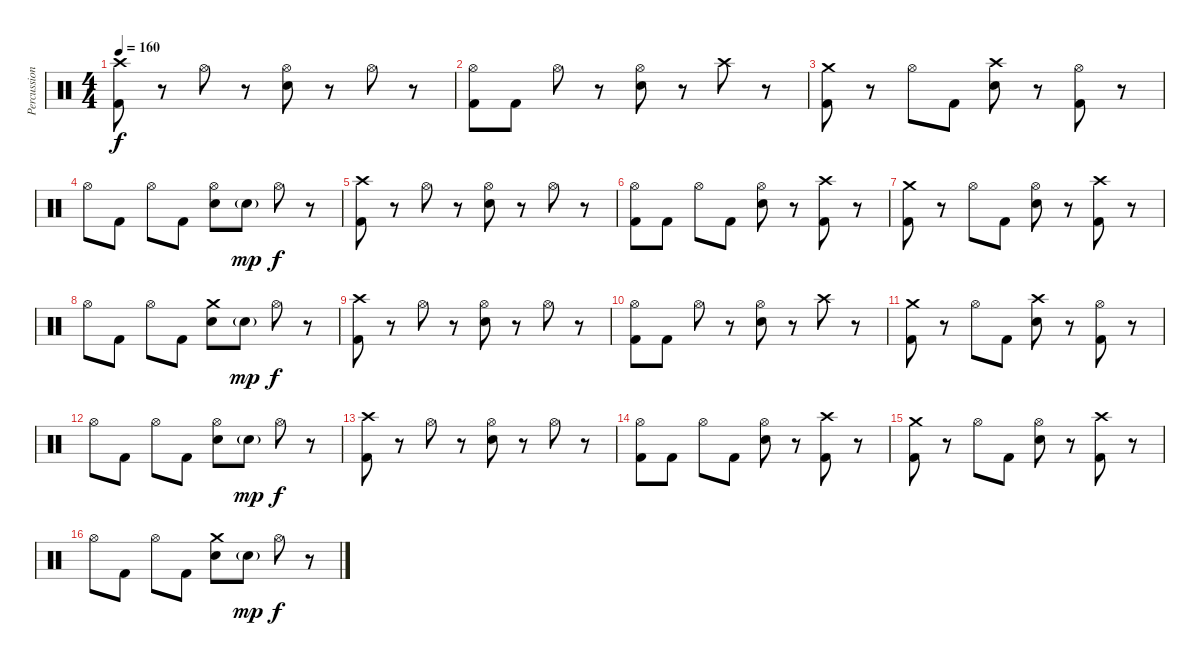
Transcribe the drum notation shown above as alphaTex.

\track ("Percussion" "Percussion") {instrument percussion}
\staff {score}
\articulation defaults
\ts (4 4)
\tempo 160
\clef neutral
\ks c
("Crash high (hit)" "Kick (hit) 2").8{dy f} r.8 "Hi-Hat (open)".8 r.8 ("Hi-Hat (open)" "Electric Snare (hit)").8 r.8 "Hi-Hat (open)".8 r.8 |
("Hi-Hat (open)" "Kick (hit) 2").8 "Kick (hit) 2".8 "Hi-Hat (open)".8 r.8 ("Hi-Hat (open)" "Electric Snare (hit)").8 r.8 "Crash high (hit)".8 r.8 |
("Crash medium (hit)" "Kick (hit) 2").8 r.8 "Hi-Hat (open)".8 "Kick (hit) 2".8 ("Crash high (hit)" "Electric Snare (hit)").8 r.8 ("Hi-Hat (open)" "Kick (hit) 2").8 r.8 |
"Hi-Hat (open)".8 "Kick (hit) 2".8 "Hi-Hat (open)".8 "Kick (hit) 2".8 ("Hi-Hat (open)" "Electric Snare (hit)").8 "Electric Snare (hit)"{g}.8{dy mp} "Hi-Hat (open)".8{dy f} r.8 |
("Crash high (hit)" "Kick (hit) 2").8 r.8 "Hi-Hat (open)".8 r.8 ("Hi-Hat (open)" "Electric Snare (hit)").8 r.8 "Hi-Hat (open)".8 r.8 |
("Hi-Hat (open)" "Kick (hit) 2").8 "Kick (hit) 2".8 "Hi-Hat (open)".8 "Kick (hit) 2".8 ("Hi-Hat (open)" "Electric Snare (hit)").8 r.8 ("Crash high (hit)" "Kick (hit) 2").8 r.8 |
("Crash medium (hit)" "Kick (hit) 2").8 r.8 "Hi-Hat (open)".8 "Kick (hit) 2".8 ("Hi-Hat (open)" "Electric Snare (hit)").8 r.8 ("Crash high (hit)" "Kick (hit) 2").8 r.8 |
"Hi-Hat (open)".8 "Kick (hit) 2".8 "Hi-Hat (open)".8 "Kick (hit) 2".8 ("Crash medium (hit)" "Electric Snare (hit)").8 "Electric Snare (hit)"{g}.8{dy mp} "Hi-Hat (open)".8{dy f} r.8 |
("Crash high (hit)" "Kick (hit) 2").8 r.8 "Hi-Hat (open)".8 r.8 ("Hi-Hat (open)" "Electric Snare (hit)").8 r.8 "Hi-Hat (open)".8 r.8 |
("Hi-Hat (open)" "Kick (hit) 2").8 "Kick (hit) 2".8 "Hi-Hat (open)".8 r.8 ("Hi-Hat (open)" "Electric Snare (hit)").8 r.8 "Crash high (hit)".8 r.8 |
("Crash medium (hit)" "Kick (hit) 2").8 r.8 "Hi-Hat (open)".8 "Kick (hit) 2".8 ("Crash high (hit)" "Electric Snare (hit)").8 r.8 ("Hi-Hat (open)" "Kick (hit) 2").8 r.8 |
"Hi-Hat (open)".8 "Kick (hit) 2".8 "Hi-Hat (open)".8 "Kick (hit) 2".8 ("Hi-Hat (open)" "Electric Snare (hit)").8 "Electric Snare (hit)"{g}.8{dy mp} "Hi-Hat (open)".8{dy f} r.8 |
("Crash high (hit)" "Kick (hit) 2").8 r.8 "Hi-Hat (open)".8 r.8 ("Hi-Hat (open)" "Electric Snare (hit)").8 r.8 "Hi-Hat (open)".8 r.8 |
("Hi-Hat (open)" "Kick (hit) 2").8 "Kick (hit) 2".8 "Hi-Hat (open)".8 "Kick (hit) 2".8 ("Hi-Hat (open)" "Electric Snare (hit)").8 r.8 ("Crash high (hit)" "Kick (hit) 2").8 r.8 |
("Crash medium (hit)" "Kick (hit) 2").8 r.8 "Hi-Hat (open)".8 "Kick (hit) 2".8 ("Hi-Hat (open)" "Electric Snare (hit)").8 r.8 ("Crash high (hit)" "Kick (hit) 2").8 r.8 |
"Hi-Hat (open)".8 "Kick (hit) 2".8 "Hi-Hat (open)".8 "Kick (hit) 2".8 ("Crash medium (hit)" "Electric Snare (hit)").8 "Electric Snare (hit)"{g}.8{dy mp} "Hi-Hat (open)".8{dy f} r.8
